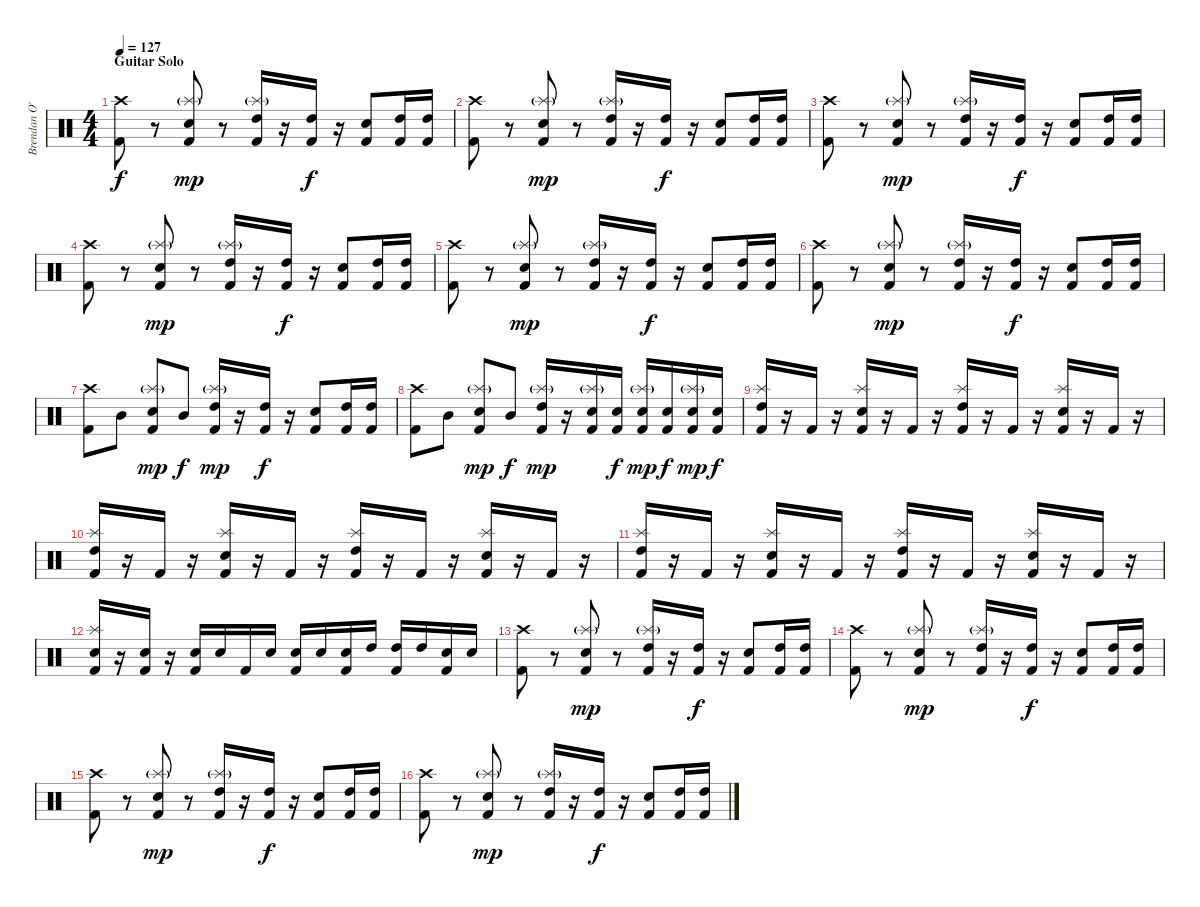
\track ("Brendan O'Neil" "Brendan O'") {instrument percussion}
\staff {score}
\articulation defaults
\ts (4 4)
\section ("" "Guitar Solo")
\tempo 127
\clef neutral
\ks c
("Crash high (hit)" "Kick (hit) 2").8{dy f} r.8 ("Splash (hit)"{g} "Snare (hit) 2" "Kick (hit) 2").8{dy mp} r.8 ("Splash (hit)"{g} "High Tom (hit)" "Kick (hit) 2").16 r.16 ("High Tom (hit)" "Kick (hit) 2").16{dy f} r.16 ("Snare (hit) 2" "Kick (hit) 2").8 ("High Tom (hit)" "Kick (hit) 2").16 ("High Tom (hit)" "Kick (hit) 2").16 |
("Crash high (hit)" "Kick (hit) 2").8 r.8 ("Splash (hit)"{g} "Snare (hit) 2" "Kick (hit) 2").8{dy mp} r.8 ("Splash (hit)"{g} "High Tom (hit)" "Kick (hit) 2").16 r.16 ("High Tom (hit)" "Kick (hit) 2").16{dy f} r.16 ("Snare (hit) 2" "Kick (hit) 2").8 ("High Tom (hit)" "Kick (hit) 2").16 ("High Tom (hit)" "Kick (hit) 2").16 |
("Crash high (hit)" "Kick (hit) 2").8 r.8 ("Splash (hit)"{g} "Snare (hit) 2" "Kick (hit) 2").8{dy mp} r.8 ("Splash (hit)"{g} "High Tom (hit)" "Kick (hit) 2").16 r.16 ("High Tom (hit)" "Kick (hit) 2").16{dy f} r.16 ("Snare (hit) 2" "Kick (hit) 2").8 ("High Tom (hit)" "Kick (hit) 2").16 ("High Tom (hit)" "Kick (hit) 2").16 |
("Crash high (hit)" "Kick (hit) 2").8 r.8 ("Splash (hit)"{g} "Snare (hit) 2" "Kick (hit) 2").8{dy mp} r.8 ("Splash (hit)"{g} "High Tom (hit)" "Kick (hit) 2").16 r.16 ("High Tom (hit)" "Kick (hit) 2").16{dy f} r.16 ("Snare (hit) 2" "Kick (hit) 2").8 ("High Tom (hit)" "Kick (hit) 2").16 ("High Tom (hit)" "Kick (hit) 2").16 |
("Crash high (hit)" "Kick (hit) 2").8 r.8 ("Splash (hit)"{g} "Snare (hit) 2" "Kick (hit) 2").8{dy mp} r.8 ("Splash (hit)"{g} "High Tom (hit)" "Kick (hit) 2").16 r.16 ("High Tom (hit)" "Kick (hit) 2").16{dy f} r.16 ("Snare (hit) 2" "Kick (hit) 2").8 ("High Tom (hit)" "Kick (hit) 2").16 ("High Tom (hit)" "Kick (hit) 2").16 |
("Crash high (hit)" "Kick (hit) 2").8 r.8 ("Splash (hit)"{g} "Snare (hit) 2" "Kick (hit) 2").8{dy mp} r.8 ("Splash (hit)"{g} "High Tom (hit)" "Kick (hit) 2").16 r.16 ("High Tom (hit)" "Kick (hit) 2").16{dy f} r.16 ("Snare (hit) 2" "Kick (hit) 2").8 ("High Tom (hit)" "Kick (hit) 2").16 ("High Tom (hit)" "Kick (hit) 2").16 |
("Crash high (hit)" "Kick (hit) 2").8 "Mid Tom (hit)".8 ("Splash (hit)"{g} "Snare (hit) 2" "Kick (hit) 2").8{dy mp} "Mid Tom (hit)".8{dy f} ("Splash (hit)"{g} "High Tom (hit)" "Kick (hit) 2").16{dy mp} r.16 ("High Tom (hit)" "Kick (hit) 2").16{dy f} r.16 ("Snare (hit) 2" "Kick (hit) 2").8 ("High Tom (hit)" "Kick (hit) 2").16 ("High Tom (hit)" "Kick (hit) 2").16 |
("Crash high (hit)" "Kick (hit) 2").8 "Mid Tom (hit)".8 ("Splash (hit)"{g} "Snare (hit) 2" "Kick (hit) 2").8{dy mp} "Mid Tom (hit)".8{dy f} ("Splash (hit)"{g} "High Tom (hit)" "Kick (hit) 2").16{dy mp} r.16 ("Splash (hit)"{g} "Snare (hit) 2" "Kick (hit) 2").16 ("Snare (hit) 2" "Kick (hit) 2").16{dy f} ("Splash (hit)"{g} "Snare (hit) 2" "Kick (hit) 2").16{dy mp} ("Snare (hit) 2" "Kick (hit) 2").16{dy f} ("Splash (hit)"{g} "Snare (hit) 2" "Kick (hit) 2").16{dy mp} ("Snare (hit) 2" "Kick (hit) 2").16{dy f} |
("Splash (hit)" "High Tom (hit)" "Kick (hit) 2").16 r.16 "Kick (hit) 2".16 r.16 ("Splash (hit)" "Snare (hit) 2" "Kick (hit) 2").16 r.16 "Kick (hit) 2".16 r.16 ("Splash (hit)" "High Tom (hit)" "Kick (hit) 2").16 r.16 "Kick (hit) 2".16 r.16 ("Splash (hit)" "Snare (hit) 2" "Kick (hit) 2").16 r.16 "Kick (hit) 2".16 r.16 |
("Splash (hit)" "High Tom (hit)" "Kick (hit) 2").16 r.16 "Kick (hit) 2".16 r.16 ("Splash (hit)" "Snare (hit) 2" "Kick (hit) 2").16 r.16 "Kick (hit) 2".16 r.16 ("Splash (hit)" "High Tom (hit)" "Kick (hit) 2").16 r.16 "Kick (hit) 2".16 r.16 ("Splash (hit)" "Snare (hit) 2" "Kick (hit) 2").16 r.16 "Kick (hit) 2".16 r.16 |
("Splash (hit)" "High Tom (hit)" "Kick (hit) 2").16 r.16 "Kick (hit) 2".16 r.16 ("Splash (hit)" "Snare (hit) 2" "Kick (hit) 2").16 r.16 "Kick (hit) 2".16 r.16 ("Splash (hit)" "High Tom (hit)" "Kick (hit) 2").16 r.16 "Kick (hit) 2".16 r.16 ("Splash (hit)" "Snare (hit) 2" "Kick (hit) 2").16 r.16 "Kick (hit) 2".16 r.16 |
("Splash (hit)" "Snare (hit) 2" "Kick (hit) 2").16 r.16 ("Snare (hit) 2" "Kick (hit) 2").16 r.16 ("Snare (hit) 2" "Kick (hit) 2").16 "Snare (hit) 2".16 "Kick (hit) 2".16 "Snare (hit) 2".16 ("Snare (hit) 2" "Kick (hit) 2").16 "Snare (hit) 2".16 ("Snare (hit) 2" "Kick (hit) 2").16 "High Tom (hit)".16 ("High Tom (hit)" "Kick (hit) 2").16 "High Tom (hit)".16 ("Snare (hit) 2" "Kick (hit) 2").16 "Snare (hit) 2".16 |
("Crash high (hit)" "Kick (hit) 2").8 r.8 ("Splash (hit)"{g} "Snare (hit) 2" "Kick (hit) 2").8{dy mp} r.8 ("Splash (hit)"{g} "High Tom (hit)" "Kick (hit) 2").16 r.16 ("High Tom (hit)" "Kick (hit) 2").16{dy f} r.16 ("Snare (hit) 2" "Kick (hit) 2").8 ("High Tom (hit)" "Kick (hit) 2").16 ("High Tom (hit)" "Kick (hit) 2").16 |
("Crash high (hit)" "Kick (hit) 2").8 r.8 ("Splash (hit)"{g} "Snare (hit) 2" "Kick (hit) 2").8{dy mp} r.8 ("Splash (hit)"{g} "High Tom (hit)" "Kick (hit) 2").16 r.16 ("High Tom (hit)" "Kick (hit) 2").16{dy f} r.16 ("Snare (hit) 2" "Kick (hit) 2").8 ("High Tom (hit)" "Kick (hit) 2").16 ("High Tom (hit)" "Kick (hit) 2").16 |
("Crash high (hit)" "Kick (hit) 2").8 r.8 ("Splash (hit)"{g} "Snare (hit) 2" "Kick (hit) 2").8{dy mp} r.8 ("Splash (hit)"{g} "High Tom (hit)" "Kick (hit) 2").16 r.16 ("High Tom (hit)" "Kick (hit) 2").16{dy f} r.16 ("Snare (hit) 2" "Kick (hit) 2").8 ("High Tom (hit)" "Kick (hit) 2").16 ("High Tom (hit)" "Kick (hit) 2").16 |
("Crash high (hit)" "Kick (hit) 2").8 r.8 ("Splash (hit)"{g} "Snare (hit) 2" "Kick (hit) 2").8{dy mp} r.8 ("Splash (hit)"{g} "High Tom (hit)" "Kick (hit) 2").16 r.16 ("High Tom (hit)" "Kick (hit) 2").16{dy f} r.16 ("Snare (hit) 2" "Kick (hit) 2").8 ("High Tom (hit)" "Kick (hit) 2").16 ("High Tom (hit)" "Kick (hit) 2").16
